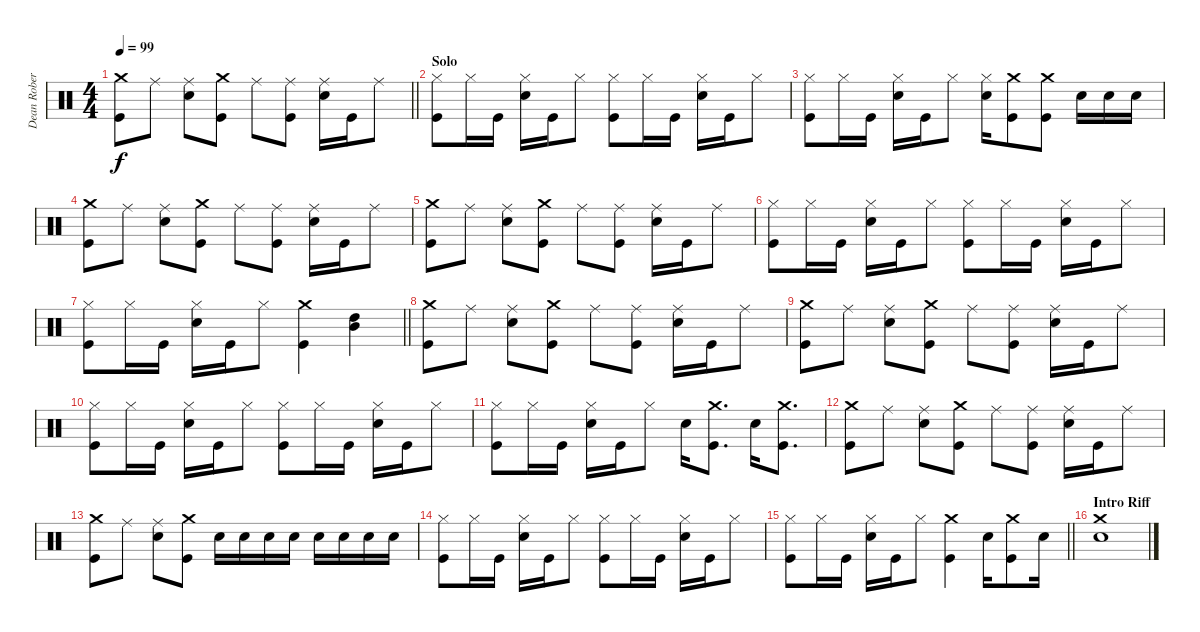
\track ("Dean Roberts" "Dean Rober") {instrument percussion}
\staff {score}
\articulation defaults
\ts (4 4)
\tempo 99
\clef neutral
\barLineRight lightlight
\ks c
("Crash medium (hit)" "Kick (hit)").8{dy f} "Ride (middle)".8 ("Ride (middle)" "Electric Snare (hit)").8 ("Crash medium (hit)" "Kick (hit)").8 "Ride (middle)".8 ("Ride (middle)" "Kick (hit)").8 ("Ride (middle)" "Electric Snare (hit)").16 "Kick (hit)".16 "Ride (middle)".8 |
\section ("" "Solo")
("Hi-Hat (closed)" "Kick (hit)").8 "Hi-Hat (closed)".16 "Kick (hit)".16 ("Hi-Hat (closed)" "Electric Snare (hit)").16 "Kick (hit)".16 "Hi-Hat (closed)".8 ("Hi-Hat (closed)" "Kick (hit)").8 "Hi-Hat (closed)".16 "Kick (hit)".16 ("Hi-Hat (closed)" "Electric Snare (hit)").16 "Kick (hit)".16 "Hi-Hat (closed)".8 |
("Hi-Hat (closed)" "Kick (hit)").8 "Hi-Hat (closed)".16 "Kick (hit)".16 ("Hi-Hat (closed)" "Electric Snare (hit)").16 "Kick (hit)".16 "Hi-Hat (closed)".8 ("Hi-Hat (closed)" "Electric Snare (hit)").16 ("Crash medium (hit)" "Kick (hit)").8 ("Crash medium (hit)" "Kick (hit)").8 "Electric Snare (hit)".16 "Electric Snare (hit)".16 "Electric Snare (hit)".16 |
("Crash medium (hit)" "Kick (hit)").8 "Ride (middle)".8 ("Ride (middle)" "Electric Snare (hit)").8 ("Crash medium (hit)" "Kick (hit)").8 "Ride (middle)".8 ("Ride (middle)" "Kick (hit)").8 ("Ride (middle)" "Electric Snare (hit)").16 "Kick (hit)".16 "Ride (middle)".8 |
("Crash medium (hit)" "Kick (hit)").8 "Ride (middle)".8 ("Ride (middle)" "Electric Snare (hit)").8 ("Crash medium (hit)" "Kick (hit)").8 "Ride (middle)".8 ("Ride (middle)" "Kick (hit)").8 ("Ride (middle)" "Electric Snare (hit)").16 "Kick (hit)".16 "Ride (middle)".8 |
("Hi-Hat (closed)" "Kick (hit)").8 "Hi-Hat (closed)".16 "Kick (hit)".16 ("Hi-Hat (closed)" "Electric Snare (hit)").16 "Kick (hit)".16 "Hi-Hat (closed)".8 ("Hi-Hat (closed)" "Kick (hit)").8 "Hi-Hat (closed)".16 "Kick (hit)".16 ("Hi-Hat (closed)" "Electric Snare (hit)").16 "Kick (hit)".16 "Hi-Hat (closed)".8 |
\barLineRight lightlight
("Hi-Hat (closed)" "Kick (hit)").8 "Hi-Hat (closed)".16 "Kick (hit)".16 ("Hi-Hat (closed)" "Electric Snare (hit)").16 "Kick (hit)".16 "Hi-Hat (closed)".8 ("Crash medium (hit)" "Kick (hit)").4 ("Mid Tom (hit)" "High Tom (hit)").4 |
("Crash medium (hit)" "Kick (hit)").8 "Ride (middle)".8 ("Ride (middle)" "Electric Snare (hit)").8 ("Crash medium (hit)" "Kick (hit)").8 "Ride (middle)".8 ("Ride (middle)" "Kick (hit)").8 ("Ride (middle)" "Electric Snare (hit)").16 "Kick (hit)".16 "Ride (middle)".8 |
("Crash medium (hit)" "Kick (hit)").8 "Ride (middle)".8 ("Ride (middle)" "Electric Snare (hit)").8 ("Crash medium (hit)" "Kick (hit)").8 "Ride (middle)".8 ("Ride (middle)" "Kick (hit)").8 ("Ride (middle)" "Electric Snare (hit)").16 "Kick (hit)".16 "Ride (middle)".8 |
("Hi-Hat (closed)" "Kick (hit)").8 "Hi-Hat (closed)".16 "Kick (hit)".16 ("Hi-Hat (closed)" "Electric Snare (hit)").16 "Kick (hit)".16 "Hi-Hat (closed)".8 ("Hi-Hat (closed)" "Kick (hit)").8 "Hi-Hat (closed)".16 "Kick (hit)".16 ("Hi-Hat (closed)" "Electric Snare (hit)").16 "Kick (hit)".16 "Hi-Hat (closed)".8 |
("Hi-Hat (closed)" "Kick (hit)").8 "Hi-Hat (closed)".16 "Kick (hit)".16 ("Hi-Hat (closed)" "Electric Snare (hit)").16 "Kick (hit)".16 "Hi-Hat (closed)".8 "Electric Snare (hit)".16 ("Crash medium (hit)" "Kick (hit)").8{d} "Electric Snare (hit)".16 ("Crash medium (hit)" "Kick (hit)").8{d} |
("Crash medium (hit)" "Kick (hit)").8 "Ride (middle)".8 ("Ride (middle)" "Electric Snare (hit)").8 ("Crash medium (hit)" "Kick (hit)").8 "Ride (middle)".8 ("Ride (middle)" "Kick (hit)").8 ("Ride (middle)" "Electric Snare (hit)").16 "Kick (hit)".16 "Ride (middle)".8 |
("Crash medium (hit)" "Kick (hit)").8 "Ride (middle)".8 ("Ride (middle)" "Electric Snare (hit)").8 ("Crash medium (hit)" "Kick (hit)").8 "Electric Snare (hit)".16 "Electric Snare (hit)".16 "Electric Snare (hit)".16 "Electric Snare (hit)".16 "Electric Snare (hit)".16 "Electric Snare (hit)".16 "Electric Snare (hit)".16 "Electric Snare (hit)".16 |
("Hi-Hat (closed)" "Kick (hit)").8 "Hi-Hat (closed)".16 "Kick (hit)".16 ("Hi-Hat (closed)" "Electric Snare (hit)").16 "Kick (hit)".16 "Hi-Hat (closed)".8 ("Hi-Hat (closed)" "Kick (hit)").8 "Hi-Hat (closed)".16 "Kick (hit)".16 ("Hi-Hat (closed)" "Electric Snare (hit)").16 "Kick (hit)".16 "Hi-Hat (closed)".8 |
\barLineRight lightlight
("Hi-Hat (closed)" "Kick (hit)").8 "Hi-Hat (closed)".16 "Kick (hit)".16 ("Hi-Hat (closed)" "Electric Snare (hit)").16 "Kick (hit)".16 "Hi-Hat (closed)".8 ("Crash medium (hit)" "Kick (hit)").4 "Electric Snare (hit)".16 ("Crash medium (hit)" "Kick (hit)").8 "Electric Snare (hit)".16 |
\section ("" "Intro Riff")
("Crash medium (hit)" "Electric Snare (hit)").1
